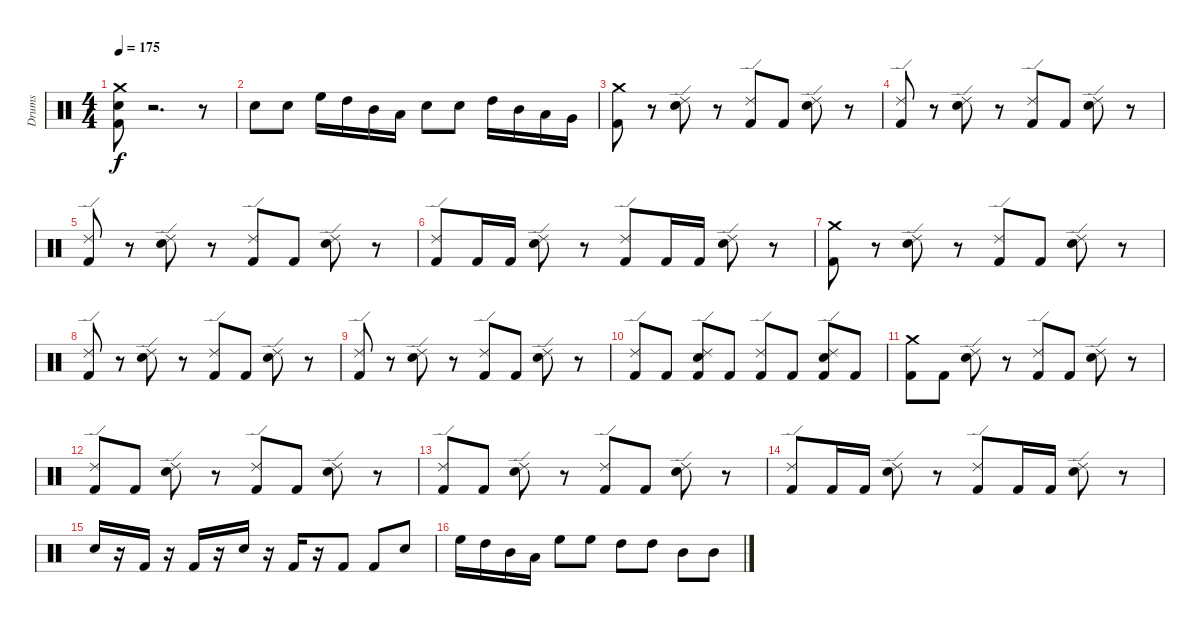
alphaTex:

\track ("Drums" "Drums") {instrument percussion}
\staff {score}
\articulation defaults
\ts (4 4)
\tempo 175
\clef neutral
\ks c
("Crash medium (hit)" "Electric Snare (hit)" "Kick (hit) 2").8{dy f} r.2{d} r.8 |
"Electric Snare (hit)".8 "Electric Snare (hit)".8 "High Floor Tom (hit)".16 "High Tom (hit)".16 "Mid Tom (hit)".16 "Low Tom (hit)".16 "Electric Snare (hit)".8 "Electric Snare (hit)".8 "High Tom (hit)".16 "Mid Tom (hit)".16 "Low Tom (hit)".16 "Very Low Tom (hit)".16 |
("Crash medium (hit)" "Kick (hit) 2").8 r.8 ("Ride (edge) 2" "Electric Snare (hit)").8 r.8 ("Ride (edge) 2" "Kick (hit) 2").8 "Kick (hit) 2".8 ("Ride (edge) 2" "Electric Snare (hit)").8 r.8 |
("Ride (edge) 2" "Kick (hit) 2").8 r.8 ("Ride (edge) 2" "Electric Snare (hit)").8 r.8 ("Ride (edge) 2" "Kick (hit) 2").8 "Kick (hit) 2".8 ("Ride (edge) 2" "Electric Snare (hit)").8 r.8 |
("Ride (edge) 2" "Kick (hit) 2").8 r.8 ("Ride (edge) 2" "Electric Snare (hit)").8 r.8 ("Ride (edge) 2" "Kick (hit) 2").8 "Kick (hit) 2".8 ("Ride (edge) 2" "Electric Snare (hit)").8 r.8 |
("Ride (edge) 2" "Kick (hit) 2").8 "Kick (hit) 2".16 "Kick (hit) 2".16 ("Ride (edge) 2" "Electric Snare (hit)").8 r.8 ("Ride (edge) 2" "Kick (hit) 2").8 "Kick (hit) 2".16 "Kick (hit) 2".16 ("Ride (edge) 2" "Electric Snare (hit)").8 r.8 |
("Crash medium (hit)" "Kick (hit) 2").8 r.8 ("Ride (edge) 2" "Electric Snare (hit)").8 r.8 ("Ride (edge) 2" "Kick (hit) 2").8 "Kick (hit) 2".8 ("Ride (edge) 2" "Electric Snare (hit)").8 r.8 |
("Ride (edge) 2" "Kick (hit) 2").8 r.8 ("Ride (edge) 2" "Electric Snare (hit)").8 r.8 ("Ride (edge) 2" "Kick (hit) 2").8 "Kick (hit) 2".8 ("Ride (edge) 2" "Electric Snare (hit)").8 r.8 |
("Ride (edge) 2" "Kick (hit) 2").8 r.8 ("Ride (edge) 2" "Electric Snare (hit)").8 r.8 ("Ride (edge) 2" "Kick (hit) 2").8 "Kick (hit) 2".8 ("Ride (edge) 2" "Electric Snare (hit)").8 r.8 |
("Ride (edge) 2" "Kick (hit) 2").8 "Kick (hit) 2".8 ("Kick (hit) 2" "Ride (edge) 2" "Electric Snare (hit)").8 "Kick (hit) 2".8 ("Kick (hit) 2" "Ride (edge) 2").8 "Kick (hit) 2".8 ("Kick (hit) 2" "Ride (edge) 2" "Electric Snare (hit)").8 "Kick (hit) 2".8 |
("Crash medium (hit)" "Kick (hit) 2").8 "Kick (hit) 2".8 ("Ride (edge) 2" "Electric Snare (hit)").8 r.8 ("Ride (edge) 2" "Kick (hit) 2").8 "Kick (hit) 2".8 ("Ride (edge) 2" "Electric Snare (hit)").8 r.8 |
("Ride (edge) 2" "Kick (hit) 2").8 "Kick (hit) 2".8 ("Ride (edge) 2" "Electric Snare (hit)").8 r.8 ("Ride (edge) 2" "Kick (hit) 2").8 "Kick (hit) 2".8 ("Ride (edge) 2" "Electric Snare (hit)").8 r.8 |
("Ride (edge) 2" "Kick (hit) 2").8 "Kick (hit) 2".8 ("Ride (edge) 2" "Electric Snare (hit)").8 r.8 ("Ride (edge) 2" "Kick (hit) 2").8 "Kick (hit) 2".8 ("Ride (edge) 2" "Electric Snare (hit)").8 r.8 |
("Ride (edge) 2" "Kick (hit) 2").8 "Kick (hit) 2".16 "Kick (hit) 2".16 ("Ride (edge) 2" "Electric Snare (hit)").8 r.8 ("Ride (edge) 2" "Kick (hit) 2").8 "Kick (hit) 2".16 "Kick (hit) 2".16 ("Ride (edge) 2" "Electric Snare (hit)").8 r.8 |
"Electric Snare (hit)".16 r.16 "Kick (hit) 2".16 r.16 "Kick (hit) 2".16 r.16 "Electric Snare (hit)".16 r.16 "Kick (hit) 2".16 r.16 "Kick (hit) 2".8 "Kick (hit) 2".8 "Electric Snare (hit)".8 |
"High Floor Tom (hit)".16 "High Tom (hit)".16 "Mid Tom (hit)".16 "Low Tom (hit)".16 "High Floor Tom (hit)".8 "High Floor Tom (hit)".8 "High Tom (hit)".8 "High Tom (hit)".8 "Mid Tom (hit)".8 "Mid Tom (hit)".8
